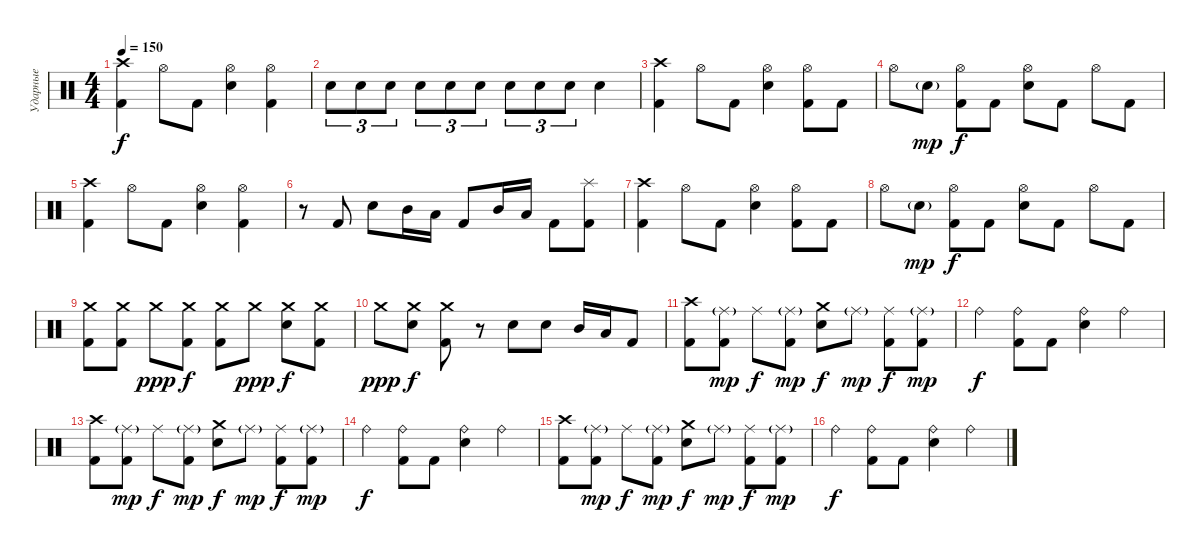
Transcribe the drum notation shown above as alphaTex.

\track ("Ударные" "Ударные") {instrument percussion}
\staff {score}
\articulation defaults
\ts (4 4)
\tempo 150
\clef neutral
\ks c
("Crash high (hit)" "Kick (hit) 2").4{dy f} "Hi-Hat (open)".8 "Kick (hit) 2".8 ("Hi-Hat (open)" "Snare (hit) 2").4 ("Hi-Hat (open)" "Kick (hit) 2").4 |
"Snare (hit) 2".8{tu (3 2)} "Snare (hit) 2".8{tu (3 2)} "Snare (hit) 2".8{tu (3 2)} "Snare (hit) 2".8{tu (3 2)} "Snare (hit) 2".8{tu (3 2)} "Snare (hit) 2".8{tu (3 2)} "Snare (hit) 2".8{tu (3 2)} "Snare (hit) 2".8{tu (3 2)} "Snare (hit) 2".8{tu (3 2)} "Snare (hit) 2".4 |
("Crash high (hit)" "Kick (hit) 2").4 "Hi-Hat (open)".8 "Kick (hit) 2".8 ("Hi-Hat (open)" "Snare (hit) 2").4 ("Hi-Hat (open)" "Kick (hit) 2").8 "Kick (hit) 2".8 |
"Hi-Hat (open)".8 "Snare (hit) 2"{g}.8{dy mp} ("Hi-Hat (open)" "Kick (hit) 2").8{dy f} "Kick (hit) 2".8 ("Hi-Hat (open)" "Snare (hit) 2").8 "Kick (hit) 2".8 "Hi-Hat (open)".8 "Kick (hit) 2".8 |
("Crash high (hit)" "Kick (hit) 2").4 "Hi-Hat (open)".8 "Kick (hit) 2".8 ("Hi-Hat (open)" "Snare (hit) 2").4 ("Hi-Hat (open)" "Kick (hit) 2").4 |
r.8 "Kick (hit) 2".8 "Snare (hit) 2".8 "Mid Tom (hit)".16 "Low Tom (hit)".16 "Kick (hit) 2".8 "Mid Tom (hit)".16 "Low Tom (hit)".16 "Kick (hit) 2".8 ("Splash (hit)" "Kick (hit) 2").8 |
("Crash high (hit)" "Kick (hit) 2").4 "Hi-Hat (open)".8 "Kick (hit) 2".8 ("Hi-Hat (open)" "Snare (hit) 2").4 ("Hi-Hat (open)" "Kick (hit) 2").8 "Kick (hit) 2".8 |
"Hi-Hat (open)".8 "Snare (hit) 2"{g}.8{dy mp} ("Hi-Hat (open)" "Kick (hit) 2").8{dy f} "Kick (hit) 2".8 ("Hi-Hat (open)" "Snare (hit) 2").8 "Kick (hit) 2".8 "Hi-Hat (open)".8 "Kick (hit) 2".8 |
("Crash medium (hit)" "Kick (hit) 2").8 ("Crash medium (hit)" "Kick (hit) 2").8 "Crash medium (hit)".8{dy ppp} ("Crash medium (hit)" "Kick (hit) 2").8{dy f} ("Crash medium (hit)" "Kick (hit) 2").8 "Crash medium (hit)".8{dy ppp} ("Crash medium (hit)" "Snare (hit) 2").8{dy f} ("Crash medium (hit)" "Kick (hit) 2").8 |
"Crash medium (hit)".8{dy ppp} ("Crash medium (hit)" "Snare (hit) 2").8{dy f} ("Crash medium (hit)" "Kick (hit) 2").8 r.8 "Snare (hit) 2".8 "Snare (hit) 2".8 "Mid Tom (hit)".16 "Low Tom (hit)".16 "Kick (hit) 2".8 |
("Crash high (hit)" "Kick (hit) 2").8 ("Ride (middle)"{g} "Kick (hit) 2").8{dy mp} "Ride (middle)".8{dy f} ("Ride (middle)"{g} "Kick (hit) 2").8{dy mp} ("Crash medium (hit)" "Snare (hit) 2").8{dy f} "Ride (middle)"{g}.8{dy mp} ("Ride (middle)" "Kick (hit) 2").8{dy f} ("Ride (middle)"{g} "Kick (hit) 2").8{dy mp} |
"Ride (bell)".4{dy f} ("Ride (bell)" "Kick (hit) 2").8 "Kick (hit) 2".8 ("Ride (bell)" "Snare (hit) 2").4 "Ride (bell)".4 |
("Crash high (hit)" "Kick (hit) 2").8 ("Ride (middle)"{g} "Kick (hit) 2").8{dy mp} "Ride (middle)".8{dy f} ("Ride (middle)"{g} "Kick (hit) 2").8{dy mp} ("Crash medium (hit)" "Snare (hit) 2").8{dy f} "Ride (middle)"{g}.8{dy mp} ("Ride (middle)" "Kick (hit) 2").8{dy f} ("Ride (middle)"{g} "Kick (hit) 2").8{dy mp} |
"Ride (bell)".4{dy f} ("Ride (bell)" "Kick (hit) 2").8 "Kick (hit) 2".8 ("Ride (bell)" "Snare (hit) 2").4 "Ride (bell)".4 |
("Crash high (hit)" "Kick (hit) 2").8 ("Ride (middle)"{g} "Kick (hit) 2").8{dy mp} "Ride (middle)".8{dy f} ("Ride (middle)"{g} "Kick (hit) 2").8{dy mp} ("Crash medium (hit)" "Snare (hit) 2").8{dy f} "Ride (middle)"{g}.8{dy mp} ("Ride (middle)" "Kick (hit) 2").8{dy f} ("Ride (middle)"{g} "Kick (hit) 2").8{dy mp} |
"Ride (bell)".4{dy f} ("Ride (bell)" "Kick (hit) 2").8 "Kick (hit) 2".8 ("Ride (bell)" "Snare (hit) 2").4 "Ride (bell)".4
